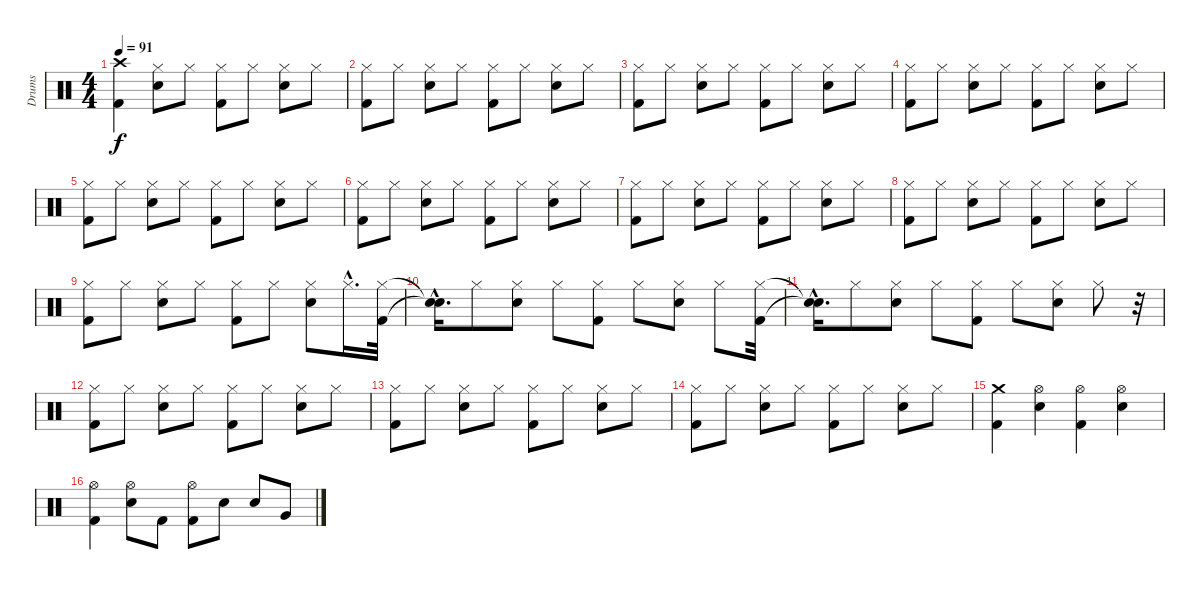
\track ("Drums" "Drums") {instrument percussion}
\staff {score}
\articulation defaults
\ts (4 4)
\tempo 91
\clef neutral
\ks c
("Kick (hit) 2" "Crash high (hit)").4{dy f} ("Hi-Hat (closed)" "Electric Snare (hit)").8 "Hi-Hat (closed)".8 ("Hi-Hat (closed)" "Kick (hit) 2").8 "Hi-Hat (closed)".8 ("Hi-Hat (closed)" "Electric Snare (hit)").8 "Hi-Hat (closed)".8 |
("Hi-Hat (closed)" "Kick (hit) 2").8 "Hi-Hat (closed)".8 ("Hi-Hat (closed)" "Electric Snare (hit)").8 "Hi-Hat (closed)".8 ("Hi-Hat (closed)" "Kick (hit) 2").8 "Hi-Hat (closed)".8 ("Hi-Hat (closed)" "Electric Snare (hit)").8 "Hi-Hat (closed)".8 |
("Hi-Hat (closed)" "Kick (hit) 2").8 "Hi-Hat (closed)".8 ("Hi-Hat (closed)" "Electric Snare (hit)").8 "Hi-Hat (closed)".8 ("Hi-Hat (closed)" "Kick (hit) 2").8 "Hi-Hat (closed)".8 ("Hi-Hat (closed)" "Electric Snare (hit)").8 "Hi-Hat (closed)".8 |
("Hi-Hat (closed)" "Kick (hit) 2").8 "Hi-Hat (closed)".8 ("Hi-Hat (closed)" "Electric Snare (hit)").8 "Hi-Hat (closed)".8 ("Hi-Hat (closed)" "Kick (hit) 2").8 "Hi-Hat (closed)".8 ("Hi-Hat (closed)" "Electric Snare (hit)").8 "Hi-Hat (closed)".8 |
("Hi-Hat (closed)" "Kick (hit) 2").8 "Hi-Hat (closed)".8 ("Hi-Hat (closed)" "Electric Snare (hit)").8 "Hi-Hat (closed)".8 ("Hi-Hat (closed)" "Kick (hit) 2").8 "Hi-Hat (closed)".8 ("Hi-Hat (closed)" "Electric Snare (hit)").8 "Hi-Hat (closed)".8 |
("Hi-Hat (closed)" "Kick (hit) 2").8 "Hi-Hat (closed)".8 ("Hi-Hat (closed)" "Electric Snare (hit)").8 "Hi-Hat (closed)".8 ("Hi-Hat (closed)" "Kick (hit) 2").8 "Hi-Hat (closed)".8 ("Hi-Hat (closed)" "Electric Snare (hit)").8 "Hi-Hat (closed)".8 |
("Hi-Hat (closed)" "Kick (hit) 2").8 "Hi-Hat (closed)".8 ("Hi-Hat (closed)" "Electric Snare (hit)").8 "Hi-Hat (closed)".8 ("Hi-Hat (closed)" "Kick (hit) 2").8 "Hi-Hat (closed)".8 ("Hi-Hat (closed)" "Electric Snare (hit)").8 "Hi-Hat (closed)".8 |
("Hi-Hat (closed)" "Kick (hit) 2").8 "Hi-Hat (closed)".8 ("Hi-Hat (closed)" "Electric Snare (hit)").8 "Hi-Hat (closed)".8 ("Hi-Hat (closed)" "Kick (hit) 2").8 "Hi-Hat (closed)".8 ("Hi-Hat (closed)" "Electric Snare (hit)").8 "Hi-Hat (closed)".8 |
("Hi-Hat (closed)" "Kick (hit) 2").8 "Hi-Hat (closed)".8 ("Hi-Hat (closed)" "Electric Snare (hit)").8 "Hi-Hat (closed)".8 ("Hi-Hat (closed)" "Kick (hit) 2").8 "Hi-Hat (closed)".8 ("Hi-Hat (closed)" "Electric Snare (hit)").8 "Hi-Hat (closed)"{hac}.16{d} ("Hi-Hat (closed)" "Kick (hit) 2").32 |
("Snare (hit)"{hac t} "Snare (hit)"{hac t}).16{d} "Hi-Hat (closed)".8 ("Hi-Hat (closed)" "Electric Snare (hit)").8 "Hi-Hat (closed)".8 ("Hi-Hat (closed)" "Kick (hit) 2").8 "Hi-Hat (closed)".8 ("Hi-Hat (closed)" "Electric Snare (hit)").8 "Hi-Hat (closed)".8 ("Hi-Hat (closed)" "Kick (hit) 2").32 |
("Snare (hit)"{hac t} "Snare (hit)"{hac t}).16{d} "Hi-Hat (closed)".8 ("Hi-Hat (closed)" "Electric Snare (hit)").8 "Hi-Hat (closed)".8 ("Hi-Hat (closed)" "Kick (hit) 2").8 "Hi-Hat (closed)".8 ("Hi-Hat (closed)" "Electric Snare (hit)").8 "Hi-Hat (closed)".8 r.32 |
("Hi-Hat (closed)" "Kick (hit) 2").8 "Hi-Hat (closed)".8 ("Hi-Hat (closed)" "Electric Snare (hit)").8 "Hi-Hat (closed)".8 ("Hi-Hat (closed)" "Kick (hit) 2").8 "Hi-Hat (closed)".8 ("Hi-Hat (closed)" "Electric Snare (hit)").8 "Hi-Hat (closed)".8 |
("Hi-Hat (closed)" "Kick (hit) 2").8 "Hi-Hat (closed)".8 ("Hi-Hat (closed)" "Electric Snare (hit)").8 "Hi-Hat (closed)".8 ("Hi-Hat (closed)" "Kick (hit) 2").8 "Hi-Hat (closed)".8 ("Hi-Hat (closed)" "Electric Snare (hit)").8 "Hi-Hat (closed)".8 |
("Hi-Hat (closed)" "Kick (hit) 2").8 "Hi-Hat (closed)".8 ("Hi-Hat (closed)" "Electric Snare (hit)").8 "Hi-Hat (closed)".8 ("Hi-Hat (closed)" "Kick (hit) 2").8 "Hi-Hat (closed)".8 ("Hi-Hat (closed)" "Electric Snare (hit)").8 "Hi-Hat (closed)".8 |
("Kick (hit) 2" "Crash medium (hit)").4 ("Hi-Hat (open)" "Electric Snare (hit)").4 ("Hi-Hat (open)" "Kick (hit) 2").4 ("Hi-Hat (open)" "Electric Snare (hit)").4 |
("Hi-Hat (open)" "Kick (hit) 2").4 ("Hi-Hat (open)" "Electric Snare (hit)").8 "Kick (hit) 2".8 ("Hi-Hat (open)" "Kick (hit) 2").8 "Electric Snare (hit)".8 "Electric Snare (hit)".8 "Very Low Tom (hit)".8
